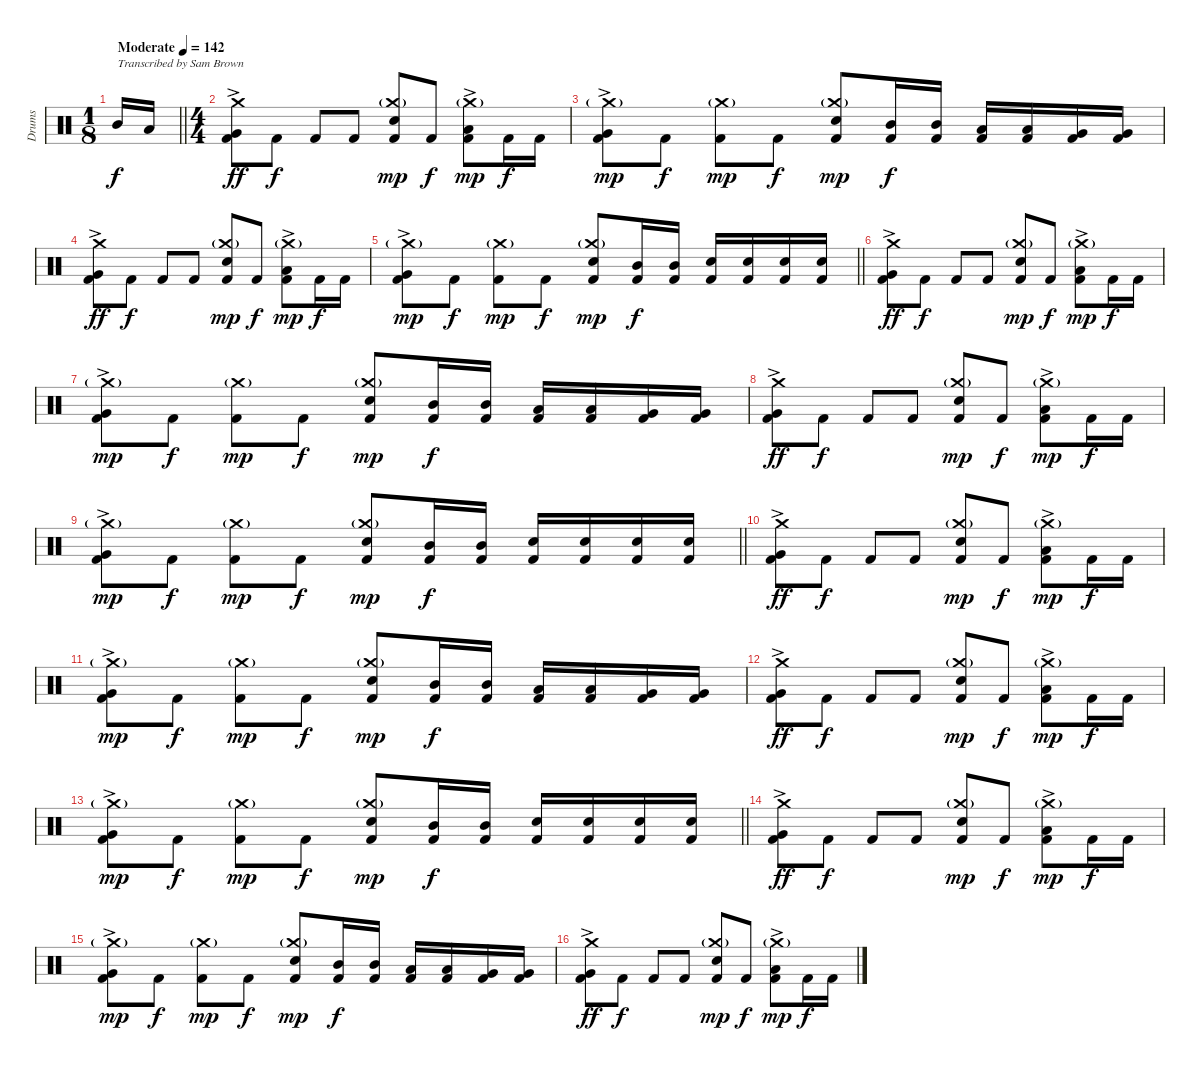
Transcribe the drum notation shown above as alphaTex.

\track ("Drums" "Drums") {instrument percussion}
\staff {score}
\articulation defaults
\ts (1 8)
\tempo (142 "Moderate")
\clef neutral
\barLineRight lightlight
\ks c "Mid Tom (hit)".16{txt "Transcribed by Sam Brown" dy f} "Low Tom (hit)".16
|
\ts (4 4)
\section ("" "")
("Kick (hit) 2" "Very Low Tom (hit)"{ac} "Crash medium (hit)").8{dy ff} "Kick (hit) 2".8{dy f} "Kick (hit) 2".8 "Kick (hit) 2".8 ("Kick (hit) 2" "Snare (hit) 2" "Crash medium (hit)"{g}).8{dy mp} "Kick (hit) 2".8{dy f} ("Kick (hit) 2" "Low Tom (hit)"{ac} "Crash medium (hit)"{g}).8{dy mp} "Kick (hit) 2".16{dy f} "Kick (hit) 2".16 |
("Kick (hit) 2" "Very Low Tom (hit)"{ac} "Crash medium (hit)"{g}).8{dy mp} "Kick (hit) 2".8{dy f} ("Kick (hit) 2" "Crash medium (hit)"{g}).8{dy mp} "Kick (hit) 2".8{dy f} ("Kick (hit) 2" "Snare (hit) 2" "Crash medium (hit)"{g}).8{dy mp} ("Kick (hit) 2" "Mid Tom (hit)").16{dy f} ("Kick (hit) 2" "Mid Tom (hit)").16 ("Kick (hit) 2" "Low Tom (hit)").16 ("Kick (hit) 2" "Low Tom (hit)").16 ("Kick (hit) 2" "Very Low Tom (hit)").16 ("Kick (hit) 2" "Very Low Tom (hit)").16 |
("Kick (hit) 2" "Very Low Tom (hit)"{ac} "Crash medium (hit)").8{dy ff} "Kick (hit) 2".8{dy f} "Kick (hit) 2".8 "Kick (hit) 2".8 ("Kick (hit) 2" "Snare (hit) 2" "Crash medium (hit)"{g}).8{dy mp} "Kick (hit) 2".8{dy f} ("Kick (hit) 2" "Low Tom (hit)"{ac} "Crash medium (hit)"{g}).8{dy mp} "Kick (hit) 2".16{dy f} "Kick (hit) 2".16 |
\barLineRight lightlight
("Kick (hit) 2" "Very Low Tom (hit)"{ac} "Crash medium (hit)"{g}).8{dy mp} "Kick (hit) 2".8{dy f} ("Kick (hit) 2" "Crash medium (hit)"{g}).8{dy mp} "Kick (hit) 2".8{dy f} ("Kick (hit) 2" "Snare (hit) 2" "Crash medium (hit)"{g}).8{dy mp} ("Kick (hit) 2" "Mid Tom (hit)").16{dy f} ("Kick (hit) 2" "Mid Tom (hit)").16 ("Kick (hit) 2" "Snare (hit) 2").16 ("Kick (hit) 2" "Snare (hit) 2").16 ("Kick (hit) 2" "Snare (hit) 2").16 ("Kick (hit) 2" "Snare (hit) 2").16 |
\section ("" "")
("Kick (hit) 2" "Very Low Tom (hit)"{ac} "Crash medium (hit)").8{dy ff} "Kick (hit) 2".8{dy f} "Kick (hit) 2".8 "Kick (hit) 2".8 ("Kick (hit) 2" "Snare (hit) 2" "Crash medium (hit)"{g}).8{dy mp} "Kick (hit) 2".8{dy f} ("Kick (hit) 2" "Low Tom (hit)"{ac} "Crash medium (hit)"{g}).8{dy mp} "Kick (hit) 2".16{dy f} "Kick (hit) 2".16 |
("Kick (hit) 2" "Very Low Tom (hit)"{ac} "Crash medium (hit)"{g}).8{dy mp} "Kick (hit) 2".8{dy f} ("Kick (hit) 2" "Crash medium (hit)"{g}).8{dy mp} "Kick (hit) 2".8{dy f} ("Kick (hit) 2" "Snare (hit) 2" "Crash medium (hit)"{g}).8{dy mp} ("Kick (hit) 2" "Mid Tom (hit)").16{dy f} ("Kick (hit) 2" "Mid Tom (hit)").16 ("Kick (hit) 2" "Low Tom (hit)").16 ("Kick (hit) 2" "Low Tom (hit)").16 ("Kick (hit) 2" "Very Low Tom (hit)").16 ("Kick (hit) 2" "Very Low Tom (hit)").16 |
("Kick (hit) 2" "Very Low Tom (hit)"{ac} "Crash medium (hit)").8{dy ff} "Kick (hit) 2".8{dy f} "Kick (hit) 2".8 "Kick (hit) 2".8 ("Kick (hit) 2" "Snare (hit) 2" "Crash medium (hit)"{g}).8{dy mp} "Kick (hit) 2".8{dy f} ("Kick (hit) 2" "Low Tom (hit)"{ac} "Crash medium (hit)"{g}).8{dy mp} "Kick (hit) 2".16{dy f} "Kick (hit) 2".16 |
\barLineRight lightlight
("Kick (hit) 2" "Very Low Tom (hit)"{ac} "Crash medium (hit)"{g}).8{dy mp} "Kick (hit) 2".8{dy f} ("Kick (hit) 2" "Crash medium (hit)"{g}).8{dy mp} "Kick (hit) 2".8{dy f} ("Kick (hit) 2" "Snare (hit) 2" "Crash medium (hit)"{g}).8{dy mp} ("Kick (hit) 2" "Mid Tom (hit)").16{dy f} ("Kick (hit) 2" "Mid Tom (hit)").16 ("Kick (hit) 2" "Snare (hit) 2").16 ("Kick (hit) 2" "Snare (hit) 2").16 ("Kick (hit) 2" "Snare (hit) 2").16 ("Kick (hit) 2" "Snare (hit) 2").16 |
\section ("" "")
("Kick (hit) 2" "Very Low Tom (hit)"{ac} "Crash medium (hit)").8{dy ff} "Kick (hit) 2".8{dy f} "Kick (hit) 2".8 "Kick (hit) 2".8 ("Kick (hit) 2" "Snare (hit) 2" "Crash medium (hit)"{g}).8{dy mp} "Kick (hit) 2".8{dy f} ("Kick (hit) 2" "Low Tom (hit)"{ac} "Crash medium (hit)"{g}).8{dy mp} "Kick (hit) 2".16{dy f} "Kick (hit) 2".16 |
("Kick (hit) 2" "Very Low Tom (hit)"{ac} "Crash medium (hit)"{g}).8{dy mp} "Kick (hit) 2".8{dy f} ("Kick (hit) 2" "Crash medium (hit)"{g}).8{dy mp} "Kick (hit) 2".8{dy f} ("Kick (hit) 2" "Snare (hit) 2" "Crash medium (hit)"{g}).8{dy mp} ("Kick (hit) 2" "Mid Tom (hit)").16{dy f} ("Kick (hit) 2" "Mid Tom (hit)").16 ("Kick (hit) 2" "Low Tom (hit)").16 ("Kick (hit) 2" "Low Tom (hit)").16 ("Kick (hit) 2" "Very Low Tom (hit)").16 ("Kick (hit) 2" "Very Low Tom (hit)").16 |
("Kick (hit) 2" "Very Low Tom (hit)"{ac} "Crash medium (hit)").8{dy ff} "Kick (hit) 2".8{dy f} "Kick (hit) 2".8 "Kick (hit) 2".8 ("Kick (hit) 2" "Snare (hit) 2" "Crash medium (hit)"{g}).8{dy mp} "Kick (hit) 2".8{dy f} ("Kick (hit) 2" "Low Tom (hit)"{ac} "Crash medium (hit)"{g}).8{dy mp} "Kick (hit) 2".16{dy f} "Kick (hit) 2".16 |
\barLineRight lightlight
("Kick (hit) 2" "Very Low Tom (hit)"{ac} "Crash medium (hit)"{g}).8{dy mp} "Kick (hit) 2".8{dy f} ("Kick (hit) 2" "Crash medium (hit)"{g}).8{dy mp} "Kick (hit) 2".8{dy f} ("Kick (hit) 2" "Snare (hit) 2" "Crash medium (hit)"{g}).8{dy mp} ("Kick (hit) 2" "Mid Tom (hit)").16{dy f} ("Kick (hit) 2" "Mid Tom (hit)").16 ("Kick (hit) 2" "Snare (hit) 2").16 ("Kick (hit) 2" "Snare (hit) 2").16 ("Kick (hit) 2" "Snare (hit) 2").16 ("Kick (hit) 2" "Snare (hit) 2").16 |
\section ("" "")
("Kick (hit) 2" "Very Low Tom (hit)"{ac} "Crash medium (hit)").8{dy ff} "Kick (hit) 2".8{dy f} "Kick (hit) 2".8 "Kick (hit) 2".8 ("Kick (hit) 2" "Snare (hit) 2" "Crash medium (hit)"{g}).8{dy mp} "Kick (hit) 2".8{dy f} ("Kick (hit) 2" "Low Tom (hit)"{ac} "Crash medium (hit)"{g}).8{dy mp} "Kick (hit) 2".16{dy f} "Kick (hit) 2".16 |
("Kick (hit) 2" "Very Low Tom (hit)"{ac} "Crash medium (hit)"{g}).8{dy mp} "Kick (hit) 2".8{dy f} ("Kick (hit) 2" "Crash medium (hit)"{g}).8{dy mp} "Kick (hit) 2".8{dy f} ("Kick (hit) 2" "Snare (hit) 2" "Crash medium (hit)"{g}).8{dy mp} ("Kick (hit) 2" "Mid Tom (hit)").16{dy f} ("Kick (hit) 2" "Mid Tom (hit)").16 ("Kick (hit) 2" "Low Tom (hit)").16 ("Kick (hit) 2" "Low Tom (hit)").16 ("Kick (hit) 2" "Very Low Tom (hit)").16 ("Kick (hit) 2" "Very Low Tom (hit)").16 |
("Kick (hit) 2" "Very Low Tom (hit)"{ac} "Crash medium (hit)").8{dy ff} "Kick (hit) 2".8{dy f} "Kick (hit) 2".8 "Kick (hit) 2".8 ("Kick (hit) 2" "Snare (hit) 2" "Crash medium (hit)"{g}).8{dy mp} "Kick (hit) 2".8{dy f} ("Kick (hit) 2" "Low Tom (hit)"{ac} "Crash medium (hit)"{g}).8{dy mp} "Kick (hit) 2".16{dy f} "Kick (hit) 2".16
